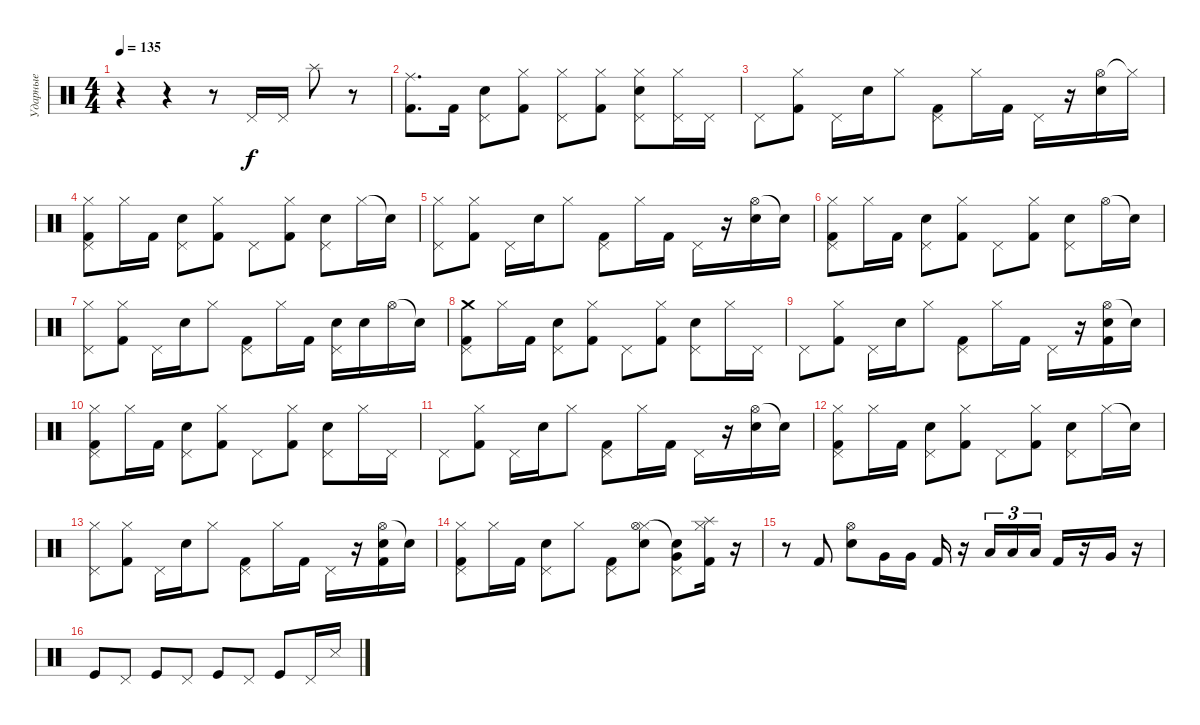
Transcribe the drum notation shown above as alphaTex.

\track ("Ударные" "Ударные") {instrument percussion}
\staff {score}
\articulation defaults
\ts (4 4)
\tempo 135
\clef neutral
\ks c
r.4{dy f} r.4 r.8 "Pedal Hi-Hat (hit)".16 "Pedal Hi-Hat (hit)".16 "Splash (hit)".8 r.8 |
("Ride (middle)" "Kick (hit) 2").8{d} "Kick (hit) 2".16 ("Pedal Hi-Hat (hit)" "Electric Snare (hit)").8 ("Hi-Hat (closed)" "Kick (hit) 2").8 ("Hi-Hat (closed)" "Pedal Hi-Hat (hit)").8 ("Hi-Hat (closed)" "Kick (hit) 2").8 ("Hi-Hat (closed)" "Pedal Hi-Hat (hit)" "Electric Snare (hit)").8 ("Hi-Hat (closed)" "Pedal Hi-Hat (hit)").16 "Pedal Hi-Hat (hit)".16 |
"Pedal Hi-Hat (hit)".8 ("Hi-Hat (closed)" "Kick (hit) 2").8 "Pedal Hi-Hat (hit)".16 "Electric Snare (hit)".16 "Hi-Hat (closed)".8 ("Pedal Hi-Hat (hit)" "Kick (hit) 2").8 "Hi-Hat (closed)".16 "Kick (hit) 2".16 "Pedal Hi-Hat (hit)".16 r.16 ("Hi-Hat (open)" "Electric Snare (hit)").16 "Hi-Hat (closed)"{t}.16 |
("Pedal Hi-Hat (hit)" "Hi-Hat (closed)" "Kick (hit) 2").8 "Hi-Hat (closed)".16 "Kick (hit) 2".16 ("Pedal Hi-Hat (hit)" "Electric Snare (hit)").8 ("Hi-Hat (closed)" "Kick (hit) 2").8 "Pedal Hi-Hat (hit)".8 ("Hi-Hat (closed)" "Kick (hit) 2").8 ("Pedal Hi-Hat (hit)" "Electric Snare (hit)").8 "Hi-Hat (closed)".16 "Snare (hit)"{t}.16 |
("Pedal Hi-Hat (hit)" "Hi-Hat (closed)").8 ("Hi-Hat (closed)" "Kick (hit) 2").8 "Pedal Hi-Hat (hit)".16 "Electric Snare (hit)".16 "Hi-Hat (closed)".8 ("Pedal Hi-Hat (hit)" "Kick (hit) 2").8 "Hi-Hat (closed)".16 "Kick (hit) 2".16 "Pedal Hi-Hat (hit)".16 r.16 ("Hi-Hat (open)" "Electric Snare (hit)").16 "Snare (hit)"{t}.16 |
("Pedal Hi-Hat (hit)" "Hi-Hat (closed)" "Kick (hit) 2").8 "Hi-Hat (closed)".16 "Kick (hit) 2".16 ("Pedal Hi-Hat (hit)" "Electric Snare (hit)").8 ("Hi-Hat (closed)" "Kick (hit) 2").8 "Pedal Hi-Hat (hit)".8 ("Hi-Hat (closed)" "Kick (hit) 2").8 ("Pedal Hi-Hat (hit)" "Electric Snare (hit)").8 "Hi-Hat (open)".16 "Snare (hit)"{t}.16 |
("Pedal Hi-Hat (hit)" "Hi-Hat (closed)").8 ("Hi-Hat (closed)" "Kick (hit) 2").8 "Pedal Hi-Hat (hit)".16 "Electric Snare (hit)".16 "Hi-Hat (closed)".8 ("Pedal Hi-Hat (hit)" "Kick (hit) 2").8 "Hi-Hat (closed)".16 "Kick (hit) 2".16 ("Pedal Hi-Hat (hit)" "Electric Snare (hit)").16 "Electric Snare (hit)".16 "Hi-Hat (open)".16 "Snare (hit)"{t}.16 |
("Pedal Hi-Hat (hit)" "Kick (hit) 2" "Crash medium (hit)").8 "Hi-Hat (closed)".16 "Kick (hit) 2".16 ("Pedal Hi-Hat (hit)" "Electric Snare (hit)").8 ("Hi-Hat (closed)" "Kick (hit) 2").8 "Pedal Hi-Hat (hit)".8 ("Hi-Hat (closed)" "Kick (hit) 2").8 ("Pedal Hi-Hat (hit)" "Electric Snare (hit)").8 "Hi-Hat (closed)".16 "Pedal Hi-Hat (hit)".16 |
"Pedal Hi-Hat (hit)".8 ("Hi-Hat (closed)" "Kick (hit) 2").8 "Pedal Hi-Hat (hit)".16 "Electric Snare (hit)".16 "Hi-Hat (closed)".8 ("Pedal Hi-Hat (hit)" "Kick (hit) 2").8 "Hi-Hat (closed)".16 "Kick (hit) 2".16 "Pedal Hi-Hat (hit)".16 r.16 ("Hi-Hat (open)" "Electric Snare (hit)" "Kick (hit) 2").16 "Snare (hit)"{t}.16 |
("Pedal Hi-Hat (hit)" "Hi-Hat (closed)" "Kick (hit) 2").8 "Hi-Hat (closed)".16 "Kick (hit) 2".16 ("Pedal Hi-Hat (hit)" "Electric Snare (hit)").8 ("Hi-Hat (closed)" "Kick (hit) 2").8 "Pedal Hi-Hat (hit)".8 ("Hi-Hat (closed)" "Kick (hit) 2").8 ("Pedal Hi-Hat (hit)" "Electric Snare (hit)").8 "Hi-Hat (closed)".16 "Pedal Hi-Hat (hit)".16 |
"Pedal Hi-Hat (hit)".8 ("Hi-Hat (closed)" "Kick (hit) 2").8 "Pedal Hi-Hat (hit)".16 "Electric Snare (hit)".16 "Hi-Hat (closed)".8 ("Pedal Hi-Hat (hit)" "Kick (hit) 2").8 "Hi-Hat (closed)".16 "Kick (hit) 2".16 "Pedal Hi-Hat (hit)".16 r.16 ("Hi-Hat (open)" "Electric Snare (hit)").16 "Snare (hit)"{t}.16 |
("Pedal Hi-Hat (hit)" "Hi-Hat (closed)" "Kick (hit) 2").8 "Hi-Hat (closed)".16 "Kick (hit) 2".16 ("Pedal Hi-Hat (hit)" "Electric Snare (hit)").8 ("Hi-Hat (closed)" "Kick (hit) 2").8 "Pedal Hi-Hat (hit)".8 ("Hi-Hat (closed)" "Kick (hit) 2").8 ("Pedal Hi-Hat (hit)" "Electric Snare (hit)").8 "Hi-Hat (closed)".16 "Snare (hit)"{t}.16 |
("Pedal Hi-Hat (hit)" "Hi-Hat (closed)").8 ("Hi-Hat (closed)" "Kick (hit) 2").8 "Pedal Hi-Hat (hit)".16 "Electric Snare (hit)".16 "Hi-Hat (closed)".8 ("Pedal Hi-Hat (hit)" "Kick (hit) 2").8 "Hi-Hat (closed)".16 "Kick (hit) 2".16 "Pedal Hi-Hat (hit)".16 r.16 ("Hi-Hat (open)" "Electric Snare (hit)" "Kick (hit) 2").16 "Snare (hit)"{t}.16 |
("Pedal Hi-Hat (hit)" "Hi-Hat (closed)" "Kick (hit) 2").8 "Hi-Hat (closed)".16 "Kick (hit) 2".16 ("Pedal Hi-Hat (hit)" "Electric Snare (hit)").8 "Hi-Hat (closed)".8 ("Pedal Hi-Hat (hit)" "Kick (hit) 2").8 ("Hi-Hat (closed)" "Electric Snare (hit)" "Hi-Hat (open)").8 ("Pedal Hi-Hat (hit)" "Very Low Tom (hit)" "Snare (hit)"{t}).8 ("Splash (hit)" "Hi-Hat (closed)" "Kick (hit) 2").16 r.16 |
r.8 "Kick (hit) 2".8 ("Hi-Hat (open)" "Electric Snare (hit)").8 "Very Low Tom (hit)".16 "Very Low Tom (hit)".16 "Kick (hit) 2".16 r.16 "Low Floor Tom (hit)".16{tu (3 2)} "Low Floor Tom (hit)".16{tu (3 2)} "Low Floor Tom (hit)".16{tu (3 2)} "Kick (hit) 2".16 r.16 "Very Low Tom (hit)".16 r.16 |
"Kick (hit)".8 "Pedal Hi-Hat (hit)".8 "Kick (hit)".8 "Pedal Hi-Hat (hit)".8 "Kick (hit)".8 "Pedal Hi-Hat (hit)".8 "Kick (hit)".8 "Pedal Hi-Hat (hit)".16 "Snare (side stick) 3".16
